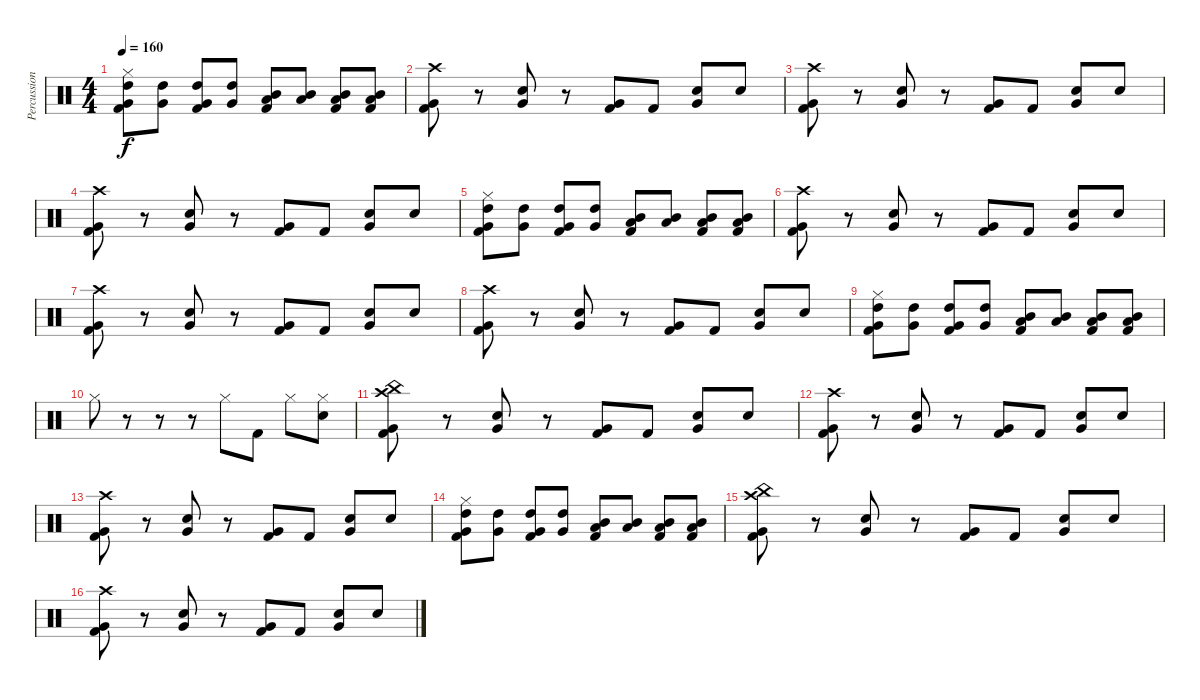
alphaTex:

\track ("Percussion" "Percussion") {instrument percussion}
\staff {score}
\articulation defaults
\ts (4 4)
\tempo 160
\clef neutral
\ks c
("Hi-Hat (closed)" "High Tom (hit)" "Very Low Tom (hit)" "Kick (hit) 2").8{dy f} ("High Tom (hit)" "Very Low Tom (hit)").8 ("High Tom (hit)" "Very Low Tom (hit)" "Kick (hit) 2").8 ("High Tom (hit)" "Very Low Tom (hit)").8 ("Mid Tom (hit)" "Low Floor Tom (hit)" "Kick (hit) 2").8 ("Mid Tom (hit)" "Low Floor Tom (hit)").8 ("Mid Tom (hit)" "Low Floor Tom (hit)" "Kick (hit) 2").8 ("Mid Tom (hit)" "Low Floor Tom (hit)" "Kick (hit) 2").8 |
("Crash high (hit)" "Very Low Tom (hit)" "Kick (hit) 2").8 r.8 ("Snare (hit) 2" "Very Low Tom (hit)").8 r.8 ("Very Low Tom (hit)" "Kick (hit) 2").8 "Kick (hit) 2".8 ("Snare (hit) 2" "Very Low Tom (hit)").8 "Snare (hit) 2".8 |
("Crash high (hit)" "Very Low Tom (hit)" "Kick (hit) 2").8 r.8 ("Snare (hit) 2" "Very Low Tom (hit)").8 r.8 ("Very Low Tom (hit)" "Kick (hit) 2").8 "Kick (hit) 2".8 ("Snare (hit) 2" "Very Low Tom (hit)").8 "Snare (hit) 2".8 |
("Crash high (hit)" "Very Low Tom (hit)" "Kick (hit) 2").8 r.8 ("Snare (hit) 2" "Very Low Tom (hit)").8 r.8 ("Very Low Tom (hit)" "Kick (hit) 2").8 "Kick (hit) 2".8 ("Snare (hit) 2" "Very Low Tom (hit)").8 "Snare (hit) 2".8 |
("Hi-Hat (closed)" "High Tom (hit)" "Very Low Tom (hit)" "Kick (hit) 2").8 ("High Tom (hit)" "Very Low Tom (hit)").8 ("High Tom (hit)" "Very Low Tom (hit)" "Kick (hit) 2").8 ("High Tom (hit)" "Very Low Tom (hit)").8 ("Mid Tom (hit)" "Low Floor Tom (hit)" "Kick (hit) 2").8 ("Mid Tom (hit)" "Low Floor Tom (hit)").8 ("Mid Tom (hit)" "Low Floor Tom (hit)" "Kick (hit) 2").8 ("Mid Tom (hit)" "Low Floor Tom (hit)" "Kick (hit) 2").8 |
("Crash high (hit)" "Very Low Tom (hit)" "Kick (hit) 2").8 r.8 ("Snare (hit) 2" "Very Low Tom (hit)").8 r.8 ("Very Low Tom (hit)" "Kick (hit) 2").8 "Kick (hit) 2".8 ("Snare (hit) 2" "Very Low Tom (hit)").8 "Snare (hit) 2".8 |
("Crash high (hit)" "Very Low Tom (hit)" "Kick (hit) 2").8 r.8 ("Snare (hit) 2" "Very Low Tom (hit)").8 r.8 ("Very Low Tom (hit)" "Kick (hit) 2").8 "Kick (hit) 2".8 ("Snare (hit) 2" "Very Low Tom (hit)").8 "Snare (hit) 2".8 |
("Crash high (hit)" "Very Low Tom (hit)" "Kick (hit) 2").8 r.8 ("Snare (hit) 2" "Very Low Tom (hit)").8 r.8 ("Very Low Tom (hit)" "Kick (hit) 2").8 "Kick (hit) 2".8 ("Snare (hit) 2" "Very Low Tom (hit)").8 "Snare (hit) 2".8 |
("Hi-Hat (closed)" "High Tom (hit)" "Very Low Tom (hit)" "Kick (hit) 2").8 ("High Tom (hit)" "Very Low Tom (hit)").8 ("High Tom (hit)" "Very Low Tom (hit)" "Kick (hit) 2").8 ("High Tom (hit)" "Very Low Tom (hit)").8 ("Mid Tom (hit)" "Low Floor Tom (hit)" "Kick (hit) 2").8 ("Mid Tom (hit)" "Low Floor Tom (hit)").8 ("Mid Tom (hit)" "Low Floor Tom (hit)" "Kick (hit) 2").8 ("Mid Tom (hit)" "Low Floor Tom (hit)" "Kick (hit) 2").8 |
"Hi-Hat (closed)".8 r.8 r.8 r.8 "Hi-Hat (closed)".8 "Kick (hit) 2".8 "Hi-Hat (closed)".8 ("Hi-Hat (closed)" "Snare (hit) 2").8 |
("Crash high (hit)" "China (hit)" "Very Low Tom (hit)" "Kick (hit) 2").8 r.8 ("Snare (hit) 2" "Very Low Tom (hit)").8 r.8 ("Very Low Tom (hit)" "Kick (hit) 2").8 "Kick (hit) 2".8 ("Snare (hit) 2" "Very Low Tom (hit)").8 "Snare (hit) 2".8 |
("Crash high (hit)" "Very Low Tom (hit)" "Kick (hit) 2").8 r.8 ("Snare (hit) 2" "Very Low Tom (hit)").8 r.8 ("Very Low Tom (hit)" "Kick (hit) 2").8 "Kick (hit) 2".8 ("Snare (hit) 2" "Very Low Tom (hit)").8 "Snare (hit) 2".8 |
("Crash high (hit)" "Very Low Tom (hit)" "Kick (hit) 2").8 r.8 ("Snare (hit) 2" "Very Low Tom (hit)").8 r.8 ("Very Low Tom (hit)" "Kick (hit) 2").8 "Kick (hit) 2".8 ("Snare (hit) 2" "Very Low Tom (hit)").8 "Snare (hit) 2".8 |
("Hi-Hat (closed)" "High Tom (hit)" "Very Low Tom (hit)" "Kick (hit) 2").8 ("High Tom (hit)" "Very Low Tom (hit)").8 ("High Tom (hit)" "Very Low Tom (hit)" "Kick (hit) 2").8 ("High Tom (hit)" "Very Low Tom (hit)").8 ("Mid Tom (hit)" "Low Floor Tom (hit)" "Kick (hit) 2").8 ("Mid Tom (hit)" "Low Floor Tom (hit)").8 ("Mid Tom (hit)" "Low Floor Tom (hit)" "Kick (hit) 2").8 ("Mid Tom (hit)" "Low Floor Tom (hit)" "Kick (hit) 2").8 |
("Crash high (hit)" "China (hit)" "Very Low Tom (hit)" "Kick (hit) 2").8 r.8 ("Snare (hit) 2" "Very Low Tom (hit)").8 r.8 ("Very Low Tom (hit)" "Kick (hit) 2").8 "Kick (hit) 2".8 ("Snare (hit) 2" "Very Low Tom (hit)").8 "Snare (hit) 2".8 |
("Crash high (hit)" "Very Low Tom (hit)" "Kick (hit) 2").8 r.8 ("Snare (hit) 2" "Very Low Tom (hit)").8 r.8 ("Very Low Tom (hit)" "Kick (hit) 2").8 "Kick (hit) 2".8 ("Snare (hit) 2" "Very Low Tom (hit)").8 "Snare (hit) 2".8
